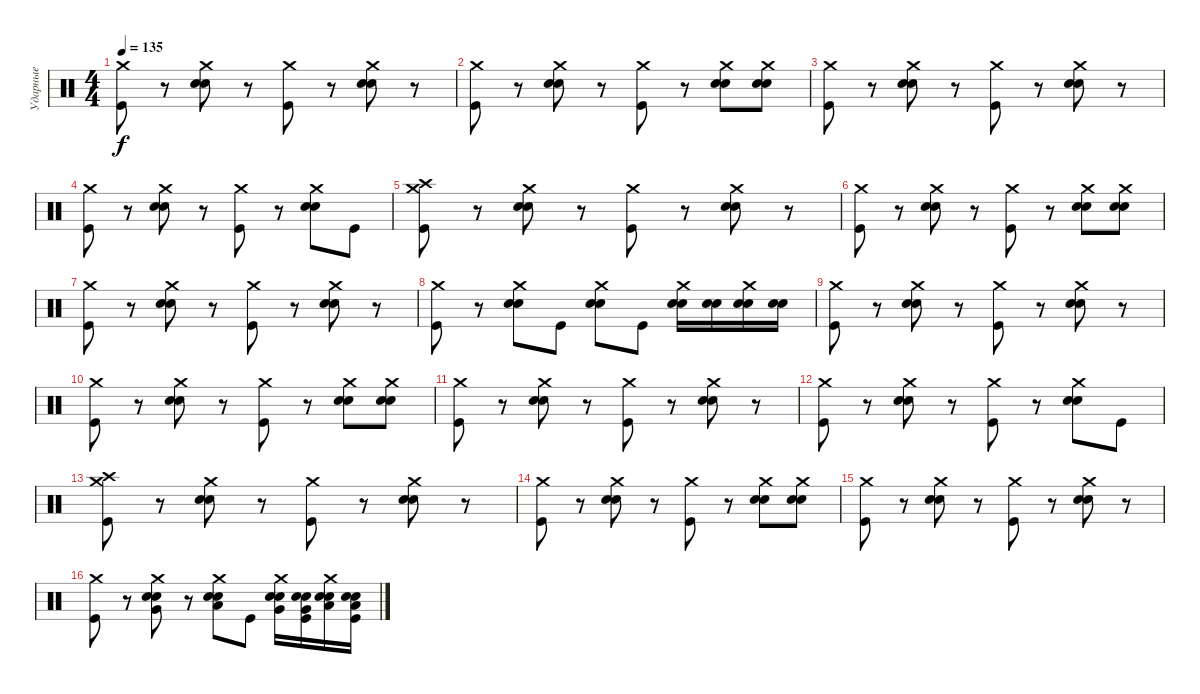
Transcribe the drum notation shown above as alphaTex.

\track ("Ударные" "Ударные") {instrument percussion}
\staff {score}
\articulation defaults
\ts (4 4)
\tempo 135
\clef neutral
\ks c
("Crash medium (hit)" "Kick (hit)").8{dy f} r.8 ("Crash medium (hit)" "Electric Snare (hit)" "Electric Snare (hit)").8 r.8 ("Crash medium (hit)" "Kick (hit)").8 r.8 ("Crash medium (hit)" "Electric Snare (hit)" "Electric Snare (hit)").8 r.8 |
("Crash medium (hit)" "Kick (hit)").8 r.8 ("Crash medium (hit)" "Electric Snare (hit)" "Electric Snare (hit)").8 r.8 ("Crash medium (hit)" "Kick (hit)").8 r.8 ("Crash medium (hit)" "Electric Snare (hit)" "Electric Snare (hit)").8 ("Crash medium (hit)" "Electric Snare (hit)" "Electric Snare (hit)").8 |
("Crash medium (hit)" "Kick (hit)").8 r.8 ("Crash medium (hit)" "Electric Snare (hit)" "Electric Snare (hit)").8 r.8 ("Crash medium (hit)" "Kick (hit)").8 r.8 ("Crash medium (hit)" "Electric Snare (hit)" "Electric Snare (hit)").8 r.8 |
("Crash medium (hit)" "Kick (hit)").8 r.8 ("Crash medium (hit)" "Electric Snare (hit)" "Electric Snare (hit)").8 r.8 ("Crash medium (hit)" "Kick (hit)").8 r.8 ("Crash medium (hit)" "Electric Snare (hit)" "Electric Snare (hit)").8 "Kick (hit)".8 |
("Crash medium (hit)" "Crash high (hit)" "Kick (hit)").8 r.8 ("Crash medium (hit)" "Electric Snare (hit)" "Electric Snare (hit)").8 r.8 ("Crash medium (hit)" "Kick (hit)").8 r.8 ("Crash medium (hit)" "Electric Snare (hit)" "Electric Snare (hit)").8 r.8 |
("Crash medium (hit)" "Kick (hit)").8 r.8 ("Crash medium (hit)" "Electric Snare (hit)" "Electric Snare (hit)").8 r.8 ("Crash medium (hit)" "Kick (hit)").8 r.8 ("Crash medium (hit)" "Electric Snare (hit)" "Electric Snare (hit)").8 ("Crash medium (hit)" "Electric Snare (hit)" "Electric Snare (hit)").8 |
("Crash medium (hit)" "Kick (hit)").8 r.8 ("Crash medium (hit)" "Electric Snare (hit)" "Electric Snare (hit)").8 r.8 ("Crash medium (hit)" "Kick (hit)").8 r.8 ("Crash medium (hit)" "Electric Snare (hit)" "Electric Snare (hit)").8 r.8 |
("Crash medium (hit)" "Kick (hit)").8 r.8 ("Crash medium (hit)" "Electric Snare (hit)" "Electric Snare (hit)").8 "Kick (hit)".8 ("Crash medium (hit)" "Electric Snare (hit)" "Electric Snare (hit)").8 "Kick (hit)".8 ("Crash medium (hit)" "Electric Snare (hit)" "Electric Snare (hit)").16 ("Electric Snare (hit)" "Electric Snare (hit)").16 ("Crash medium (hit)" "Electric Snare (hit)" "Electric Snare (hit)").16 ("Electric Snare (hit)" "Electric Snare (hit)").16 |
("Crash medium (hit)" "Kick (hit)").8 r.8 ("Crash medium (hit)" "Electric Snare (hit)" "Electric Snare (hit)").8 r.8 ("Crash medium (hit)" "Kick (hit)").8 r.8 ("Crash medium (hit)" "Electric Snare (hit)" "Electric Snare (hit)").8 r.8 |
("Crash medium (hit)" "Kick (hit)").8 r.8 ("Crash medium (hit)" "Electric Snare (hit)" "Electric Snare (hit)").8 r.8 ("Crash medium (hit)" "Kick (hit)").8 r.8 ("Crash medium (hit)" "Electric Snare (hit)" "Electric Snare (hit)").8 ("Crash medium (hit)" "Electric Snare (hit)" "Electric Snare (hit)").8 |
("Crash medium (hit)" "Kick (hit)").8 r.8 ("Crash medium (hit)" "Electric Snare (hit)" "Electric Snare (hit)").8 r.8 ("Crash medium (hit)" "Kick (hit)").8 r.8 ("Crash medium (hit)" "Electric Snare (hit)" "Electric Snare (hit)").8 r.8 |
("Crash medium (hit)" "Kick (hit)").8 r.8 ("Crash medium (hit)" "Electric Snare (hit)" "Electric Snare (hit)").8 r.8 ("Crash medium (hit)" "Kick (hit)").8 r.8 ("Crash medium (hit)" "Electric Snare (hit)" "Electric Snare (hit)").8 "Kick (hit)".8 |
("Crash medium (hit)" "Crash high (hit)" "Kick (hit)").8 r.8 ("Crash medium (hit)" "Electric Snare (hit)" "Electric Snare (hit)").8 r.8 ("Crash medium (hit)" "Kick (hit)").8 r.8 ("Crash medium (hit)" "Electric Snare (hit)" "Electric Snare (hit)").8 r.8 |
("Crash medium (hit)" "Kick (hit)").8 r.8 ("Crash medium (hit)" "Electric Snare (hit)" "Electric Snare (hit)").8 r.8 ("Crash medium (hit)" "Kick (hit)").8 r.8 ("Crash medium (hit)" "Electric Snare (hit)" "Electric Snare (hit)").8 ("Crash medium (hit)" "Electric Snare (hit)" "Electric Snare (hit)").8 |
("Crash medium (hit)" "Kick (hit)").8 r.8 ("Crash medium (hit)" "Electric Snare (hit)" "Electric Snare (hit)").8 r.8 ("Crash medium (hit)" "Kick (hit)").8 r.8 ("Crash medium (hit)" "Electric Snare (hit)" "Electric Snare (hit)").8 r.8 |
("Crash medium (hit)" "Kick (hit)").8 r.8 ("Crash medium (hit)" "Electric Snare (hit)" "Electric Snare (hit)" "Very Low Tom (hit)").8 r.8 ("Crash medium (hit)" "Electric Snare (hit)" "Electric Snare (hit)" "Low Floor Tom (hit)").8 "Kick (hit)".8 ("Crash medium (hit)" "Electric Snare (hit)" "Electric Snare (hit)" "Very Low Tom (hit)").16 ("Electric Snare (hit)" "Electric Snare (hit)" "Very Low Tom (hit)" "Kick (hit)").16 ("Crash medium (hit)" "Electric Snare (hit)" "Electric Snare (hit)" "Low Floor Tom (hit)").16 ("Electric Snare (hit)" "Electric Snare (hit)" "Low Floor Tom (hit)" "Kick (hit)").16
